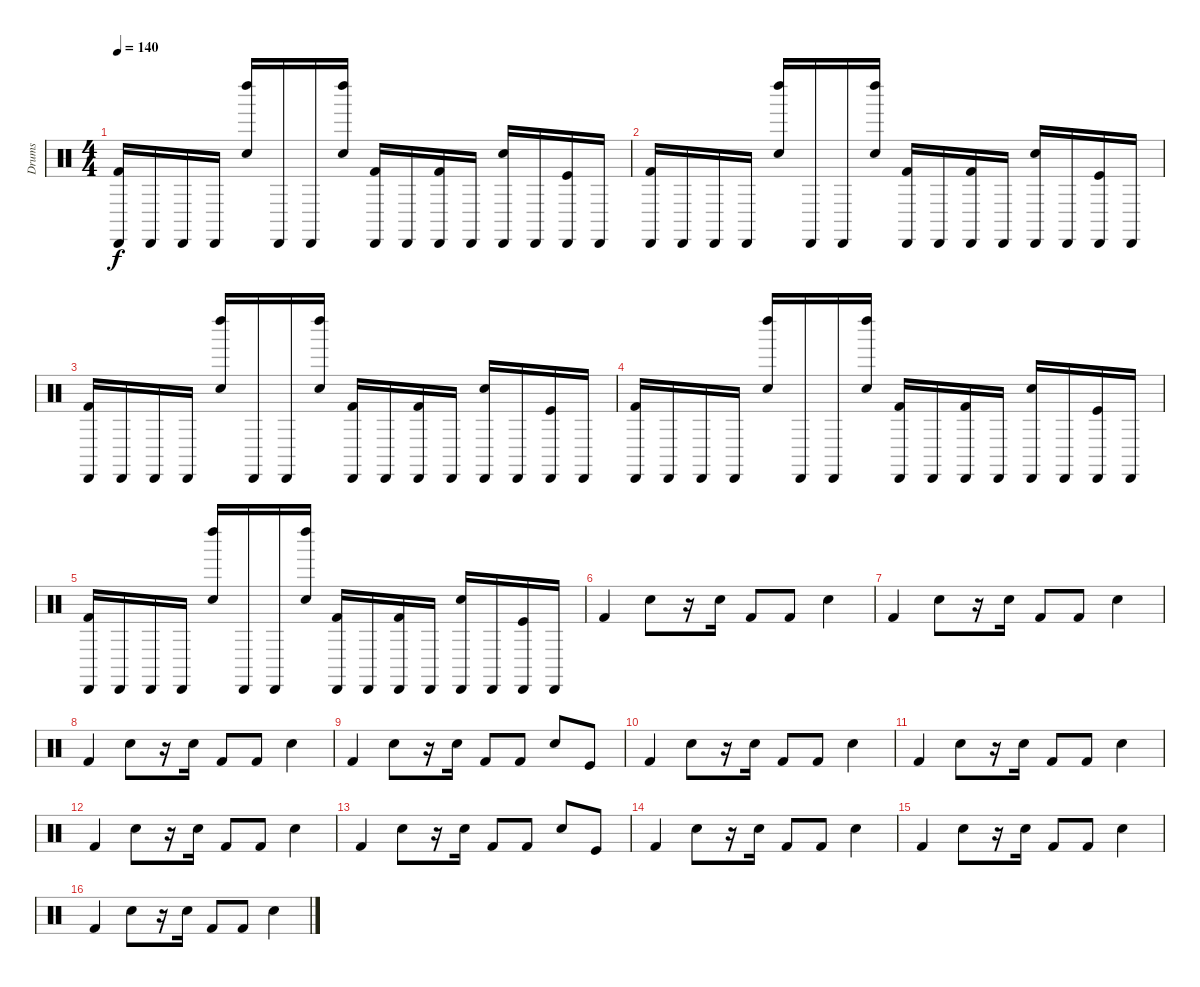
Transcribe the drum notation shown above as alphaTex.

\track ("Drums" "Drums") {instrument percussion}
\staff {score}
\articulation defaults
\ts (4 4)
\tempo 140
\clef neutral
\ks c
("Cabasa (hit)" "Kick (hit) 2").16{dy f} "Cabasa (hit)".16 "Cabasa (hit)".16 "Cabasa (hit)".16 ("Left Maraca (hit)" "Electric Snare (hit)").16 "Cabasa (hit)".16 "Cabasa (hit)".16 ("Left Maraca (hit)" "Electric Snare (hit)").16 ("Cabasa (hit)" "Kick (hit) 2").16 "Cabasa (hit)".16 ("Cabasa (hit)" "Kick (hit) 2").16 "Cabasa (hit)".16 ("Cabasa (hit)" "Electric Snare (hit)").16 "Cabasa (hit)".16 ("Cabasa (hit)" "Kick (hit)").16 "Cabasa (hit)".16 |
("Cabasa (hit)" "Kick (hit) 2").16 "Cabasa (hit)".16 "Cabasa (hit)".16 "Cabasa (hit)".16 ("Left Maraca (hit)" "Electric Snare (hit)").16 "Cabasa (hit)".16 "Cabasa (hit)".16 ("Left Maraca (hit)" "Electric Snare (hit)").16 ("Cabasa (hit)" "Kick (hit) 2").16 "Cabasa (hit)".16 ("Cabasa (hit)" "Kick (hit) 2").16 "Cabasa (hit)".16 ("Cabasa (hit)" "Electric Snare (hit)").16 "Cabasa (hit)".16 ("Cabasa (hit)" "Kick (hit)").16 "Cabasa (hit)".16 |
("Cabasa (hit)" "Kick (hit) 2").16 "Cabasa (hit)".16 "Cabasa (hit)".16 "Cabasa (hit)".16 ("Left Maraca (hit)" "Electric Snare (hit)").16 "Cabasa (hit)".16 "Cabasa (hit)".16 ("Left Maraca (hit)" "Electric Snare (hit)").16 ("Cabasa (hit)" "Kick (hit) 2").16 "Cabasa (hit)".16 ("Cabasa (hit)" "Kick (hit) 2").16 "Cabasa (hit)".16 ("Cabasa (hit)" "Electric Snare (hit)").16 "Cabasa (hit)".16 ("Cabasa (hit)" "Kick (hit)").16 "Cabasa (hit)".16 |
("Cabasa (hit)" "Kick (hit) 2").16 "Cabasa (hit)".16 "Cabasa (hit)".16 "Cabasa (hit)".16 ("Left Maraca (hit)" "Electric Snare (hit)").16 "Cabasa (hit)".16 "Cabasa (hit)".16 ("Left Maraca (hit)" "Electric Snare (hit)").16 ("Cabasa (hit)" "Kick (hit) 2").16 "Cabasa (hit)".16 ("Cabasa (hit)" "Kick (hit) 2").16 "Cabasa (hit)".16 ("Cabasa (hit)" "Electric Snare (hit)").16 "Cabasa (hit)".16 ("Cabasa (hit)" "Kick (hit)").16 "Cabasa (hit)".16 |
("Cabasa (hit)" "Kick (hit) 2").16 "Cabasa (hit)".16 "Cabasa (hit)".16 "Cabasa (hit)".16 ("Left Maraca (hit)" "Electric Snare (hit)").16 "Cabasa (hit)".16 "Cabasa (hit)".16 ("Left Maraca (hit)" "Electric Snare (hit)").16 ("Cabasa (hit)" "Kick (hit) 2").16 "Cabasa (hit)".16 ("Cabasa (hit)" "Kick (hit) 2").16 "Cabasa (hit)".16 ("Cabasa (hit)" "Electric Snare (hit)").16 "Cabasa (hit)".16 ("Cabasa (hit)" "Kick (hit)").16 "Cabasa (hit)".16 |
"Kick (hit) 2".4 "Electric Snare (hit)".8 r.16 "Electric Snare (hit)".16 "Kick (hit) 2".8 "Kick (hit) 2".8 "Electric Snare (hit)".4 |
"Kick (hit) 2".4 "Electric Snare (hit)".8 r.16 "Electric Snare (hit)".16 "Kick (hit) 2".8 "Kick (hit) 2".8 "Electric Snare (hit)".4 |
"Kick (hit) 2".4 "Electric Snare (hit)".8 r.16 "Electric Snare (hit)".16 "Kick (hit) 2".8 "Kick (hit) 2".8 "Electric Snare (hit)".4 |
"Kick (hit) 2".4 "Electric Snare (hit)".8 r.16 "Electric Snare (hit)".16 "Kick (hit) 2".8 "Kick (hit) 2".8 "Electric Snare (hit)".8 "Kick (hit)".8 |
"Kick (hit) 2".4 "Electric Snare (hit)".8 r.16 "Electric Snare (hit)".16 "Kick (hit) 2".8 "Kick (hit) 2".8 "Electric Snare (hit)".4 |
"Kick (hit) 2".4 "Electric Snare (hit)".8 r.16 "Electric Snare (hit)".16 "Kick (hit) 2".8 "Kick (hit) 2".8 "Electric Snare (hit)".4 |
"Kick (hit) 2".4 "Electric Snare (hit)".8 r.16 "Electric Snare (hit)".16 "Kick (hit) 2".8 "Kick (hit) 2".8 "Electric Snare (hit)".4 |
"Kick (hit) 2".4 "Electric Snare (hit)".8 r.16 "Electric Snare (hit)".16 "Kick (hit) 2".8 "Kick (hit) 2".8 "Electric Snare (hit)".8 "Kick (hit)".8 |
"Kick (hit) 2".4 "Electric Snare (hit)".8 r.16 "Electric Snare (hit)".16 "Kick (hit) 2".8 "Kick (hit) 2".8 "Electric Snare (hit)".4 |
"Kick (hit) 2".4 "Electric Snare (hit)".8 r.16 "Electric Snare (hit)".16 "Kick (hit) 2".8 "Kick (hit) 2".8 "Electric Snare (hit)".4 |
"Kick (hit) 2".4 "Electric Snare (hit)".8 r.16 "Electric Snare (hit)".16 "Kick (hit) 2".8 "Kick (hit) 2".8 "Electric Snare (hit)".4
